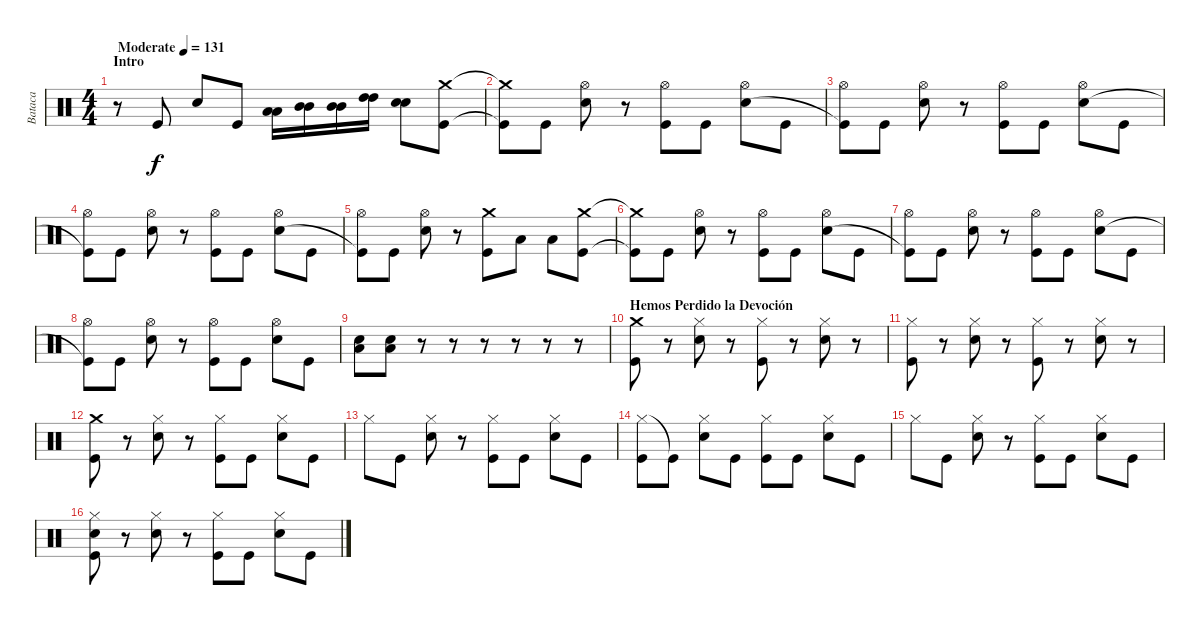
\track ("Bataca" "Bataca") {instrument percussion}
\staff {score}
\articulation defaults
\ts (4 4)
\section ("" "Intro")
\tempo (131 "Moderate")
\clef neutral
\ks c
r.8{dy f} "Kick (hit)".8 "Snare (hit) 2".8 "Kick (hit)".8 ("Low Tom (hit)" "Low Tom (hit)").16{bd 60} ("Mid Tom (hit)" "Mid Tom (hit)").16{bd 60} ("Mid Tom (hit)" "Mid Tom (hit)").16{bd 60} ("High Tom (hit)" "High Tom (hit)").16{bd 60} ("Snare (hit) 2" "Snare (hit) 2").8{bd 60} ("Crash medium (hit)" "Kick (hit)").8 |
("Crash medium (hit)"{t} "Kick (hit)"{t}).8 "Kick (hit)".8 ("Hi-Hat (open)" "Snare (hit) 2").8 r.8 ("Hi-Hat (open)" "Kick (hit)").8 "Kick (hit)".8 ("Hi-Hat (open)" "Snare (hit) 2").8 "Kick (hit)".8 |
("Hi-Hat (open)" "Kick (hit)"{t}).8 "Kick (hit)".8 ("Hi-Hat (open)" "Snare (hit) 2").8 r.8 ("Hi-Hat (open)" "Kick (hit)").8 "Kick (hit)".8 ("Hi-Hat (open)" "Snare (hit) 2").8 "Kick (hit)".8 |
("Hi-Hat (open)" "Kick (hit)"{t}).8 "Kick (hit)".8 ("Hi-Hat (open)" "Snare (hit) 2").8 r.8 ("Hi-Hat (open)" "Kick (hit)").8 "Kick (hit)".8 ("Hi-Hat (open)" "Snare (hit) 2").8 "Kick (hit)".8 |
("Hi-Hat (open)" "Kick (hit)"{t}).8 "Kick (hit)".8 ("Hi-Hat (open)" "Snare (hit) 2").8 r.8 ("Crash medium (hit)" "Kick (hit)").8 "Low Tom (hit)".8 "Low Tom (hit)".8 ("Crash medium (hit)" "Kick (hit)").8 |
("Crash medium (hit)"{t} "Kick (hit)"{t}).8 "Kick (hit)".8 ("Hi-Hat (open)" "Snare (hit) 2").8 r.8 ("Hi-Hat (open)" "Kick (hit)").8 "Kick (hit)".8 ("Hi-Hat (open)" "Snare (hit) 2").8 "Kick (hit)".8 |
("Hi-Hat (open)" "Kick (hit)"{t}).8 "Kick (hit)".8 ("Hi-Hat (open)" "Snare (hit) 2").8 r.8 ("Hi-Hat (open)" "Kick (hit)").8 "Kick (hit)".8 ("Hi-Hat (open)" "Snare (hit) 2").8 "Kick (hit)".8 |
("Hi-Hat (open)" "Kick (hit)"{t}).8 "Kick (hit)".8 ("Hi-Hat (open)" "Snare (hit) 2").8 r.8 ("Hi-Hat (open)" "Kick (hit)").8 "Kick (hit)".8 ("Hi-Hat (open)" "Snare (hit) 2").8 "Kick (hit)".8 |
("Low Tom (hit)" "Snare (hit) 2").8 ("Low Tom (hit)" "Snare (hit) 2").8 r.8 r.8 r.8 r.8 r.8 r.8 |
\section ("" "Hemos Perdido la Devoción")
("Crash medium (hit)" "Kick (hit)").8 r.8 ("Hi-Hat (closed)" "Snare (hit) 2").8 r.8 ("Hi-Hat (closed)" "Kick (hit)").8 r.8 ("Hi-Hat (closed)" "Snare (hit) 2").8 r.8 |
("Hi-Hat (closed)" "Kick (hit)").8 r.8 ("Hi-Hat (closed)" "Snare (hit) 2").8 r.8 ("Hi-Hat (closed)" "Kick (hit)").8 r.8 ("Hi-Hat (closed)" "Snare (hit) 2").8 r.8 |
("Crash medium (hit)" "Kick (hit)").8 r.8 ("Hi-Hat (closed)" "Snare (hit) 2").8 r.8 ("Hi-Hat (closed)" "Kick (hit)").8 "Kick (hit)".8 ("Hi-Hat (closed)" "Snare (hit) 2").8 "Kick (hit)".8 |
"Hi-Hat (closed)".8 "Kick (hit)".8 ("Hi-Hat (closed)" "Snare (hit) 2").8 r.8 ("Hi-Hat (closed)" "Kick (hit)").8 "Kick (hit)".8 ("Hi-Hat (closed)" "Snare (hit) 2").8 "Kick (hit)".8 |
("Hi-Hat (closed)" "Kick (hit)").8 "Kick (hit)"{t}.8 ("Hi-Hat (closed)" "Snare (hit) 2").8 "Kick (hit)".8 ("Hi-Hat (closed)" "Kick (hit)").8 "Kick (hit)".8 ("Hi-Hat (closed)" "Snare (hit) 2").8 "Kick (hit)".8 |
"Hi-Hat (closed)".8 "Kick (hit)".8 ("Hi-Hat (closed)" "Snare (hit) 2").8 r.8 ("Hi-Hat (closed)" "Kick (hit)").8 "Kick (hit)".8 ("Hi-Hat (closed)" "Snare (hit) 2").8 "Kick (hit)".8 |
("Snare (hit)" "Hi-Hat (closed)" "Kick (hit)").8 r.8 ("Hi-Hat (closed)" "Snare (hit) 2").8 r.8 ("Hi-Hat (closed)" "Kick (hit)").8 "Kick (hit)".8 ("Hi-Hat (closed)" "Snare (hit) 2").8 "Kick (hit)".8
